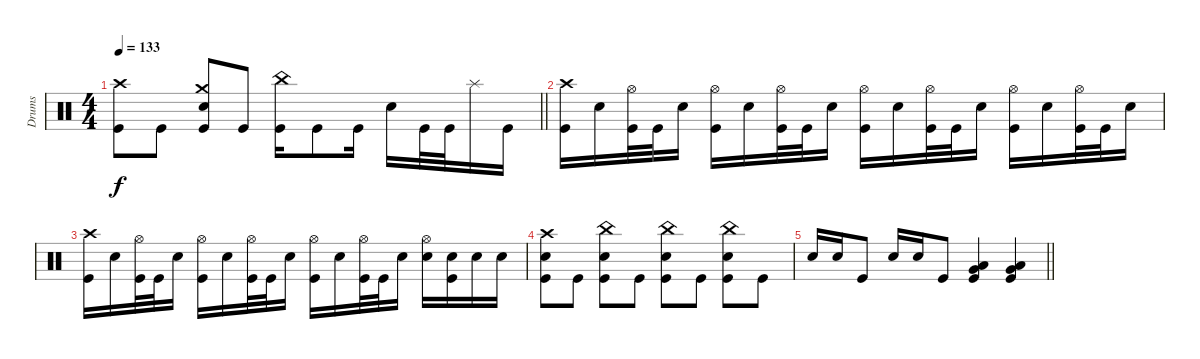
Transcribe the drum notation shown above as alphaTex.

\track ("Drums" "Drums") {instrument percussion}
\staff
\articulation defaults
\ts (4 4)
\tempo 133
\clef neutral
\barLineRight lightlight
\ks c
("Crash high (hit)" "Kick (hit)").8{dy f} "Kick (hit)".8 ("Crash medium (hit)" "Electric Snare (hit)" "Kick (hit)").8 "Kick (hit)".8 ("China (hit)" "Kick (hit)").16 "Kick (hit)".8 "Kick (hit)".16 "Electric Snare (hit)".16 "Kick (hit)".32 "Kick (hit)".32 "Splash (hit)".16 "Kick (hit)".16 |
("Crash high (hit)" "Kick (hit)").16 "Electric Snare (hit)".16 ("Hi-Hat (open)" "Kick (hit)").32 "Kick (hit)".32 "Electric Snare (hit)".16 ("Hi-Hat (open)" "Kick (hit)").16 "Electric Snare (hit)".16 ("Hi-Hat (open)" "Kick (hit)").32 "Kick (hit)".32 "Electric Snare (hit)".16 ("Hi-Hat (open)" "Kick (hit)").16 "Electric Snare (hit)".16 ("Hi-Hat (open)" "Kick (hit)").32 "Kick (hit)".32 "Electric Snare (hit)".16 ("Hi-Hat (open)" "Kick (hit)").16 "Electric Snare (hit)".16 ("Hi-Hat (open)" "Kick (hit)").32 "Kick (hit)".32 "Electric Snare (hit)".16 |
("Crash high (hit)" "Kick (hit)").16 "Electric Snare (hit)".16 ("Hi-Hat (open)" "Kick (hit)").32 "Kick (hit)".32 "Electric Snare (hit)".16 ("Hi-Hat (open)" "Kick (hit)").16 "Electric Snare (hit)".16 ("Hi-Hat (open)" "Kick (hit)").32 "Kick (hit)".32 "Electric Snare (hit)".16 ("Hi-Hat (open)" "Kick (hit)").16 "Electric Snare (hit)".16 ("Hi-Hat (open)" "Kick (hit)").32 "Kick (hit)".32 "Electric Snare (hit)".16 ("Hi-Hat (open)" "Electric Snare (hit)").16 ("Electric Snare (hit)" "Kick (hit)").16 "Electric Snare (hit)".16 "Electric Snare (hit)".16 |
("Crash high (hit)" "Electric Snare (hit)" "Kick (hit)").8 "Kick (hit)".8 ("China (hit)" "Electric Snare (hit)" "Kick (hit)").8 "Kick (hit)".8 ("China (hit)" "Electric Snare (hit)" "Kick (hit)").8 "Kick (hit)".8 ("China (hit)" "Electric Snare (hit)" "Kick (hit)").8 "Kick (hit)".8 |
\barLineRight lightlight "Electric Snare (hit)".16 "Electric Snare (hit)".16 "Kick (hit)".8 "Electric Snare (hit)".16 "Electric Snare (hit)".16 "Kick (hit)".8
("Very Low Tom (hit)" "Low Floor Tom (hit)" "Kick (hit)").4 ("Very Low Tom (hit)" "Low Floor Tom (hit)" "Kick (hit)").4
